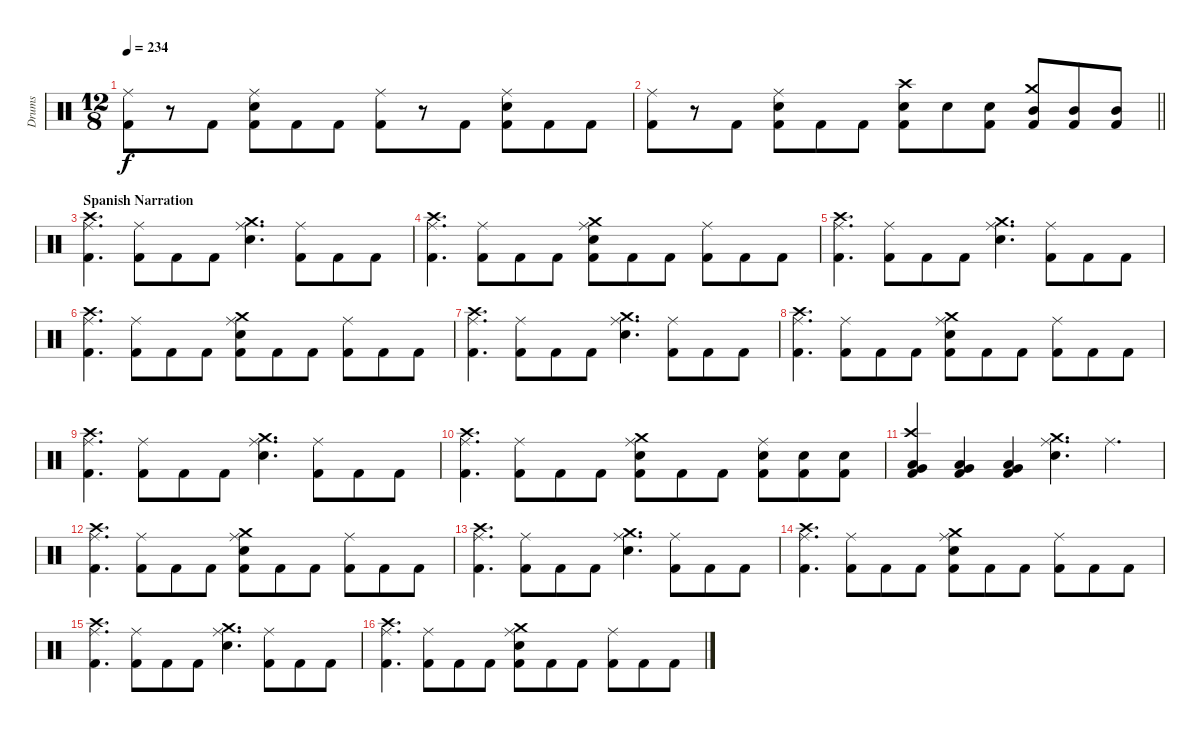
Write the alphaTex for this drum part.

\track ("Drums" "Drums") {instrument percussion}
\staff {score}
\articulation defaults
\ts (12 8)
\tempo 234
\clef neutral
\ks c
("Ride (middle)" "Kick (hit) 2").8{dy f} r.8 "Kick (hit) 2".8 ("Ride (middle)" "Snare (hit) 2" "Kick (hit) 2").8 "Kick (hit) 2".8 "Kick (hit) 2".8 ("Ride (middle)" "Kick (hit) 2").8 r.8 "Kick (hit) 2".8 ("Ride (middle)" "Snare (hit) 2" "Kick (hit) 2").8 "Kick (hit) 2".8 "Kick (hit) 2".8 |
\barLineRight lightlight
("Ride (middle)" "Kick (hit) 2").8 r.8 "Kick (hit) 2".8 ("Ride (middle)" "Snare (hit) 2" "Kick (hit) 2").8 "Kick (hit) 2".8 "Kick (hit) 2".8 ("Crash high (hit)" "Snare (hit) 2" "Kick (hit) 2").8 "Snare (hit) 2".8 ("Snare (hit) 2" "Kick (hit) 2").8 ("Crash medium (hit)" "Mid Tom (hit)" "Kick (hit) 2").8 ("Mid Tom (hit)" "Kick (hit) 2").8 ("Mid Tom (hit)" "Kick (hit) 2").8 |
\section ("" "Spanish Narration")
("Crash high (hit)" "Ride (middle)" "Kick (hit) 2").4{d} ("Ride (middle)" "Kick (hit) 2").8 "Kick (hit) 2".8 "Kick (hit) 2".8 ("Crash medium (hit)" "Ride (middle)" "Snare (hit) 2").4{d} ("Ride (middle)" "Kick (hit) 2").8 "Kick (hit) 2".8 "Kick (hit) 2".8 |
("Crash high (hit)" "Ride (middle)" "Kick (hit) 2").4{d} ("Ride (middle)" "Kick (hit) 2").8 "Kick (hit) 2".8 "Kick (hit) 2".8 ("Ride (middle)" "Crash medium (hit)" "Snare (hit) 2" "Kick (hit) 2").8 "Kick (hit) 2".8 "Kick (hit) 2".8 ("Ride (middle)" "Kick (hit) 2").8 "Kick (hit) 2".8 "Kick (hit) 2".8 |
("Crash high (hit)" "Ride (middle)" "Kick (hit) 2").4{d} ("Ride (middle)" "Kick (hit) 2").8 "Kick (hit) 2".8 "Kick (hit) 2".8 ("Crash medium (hit)" "Ride (middle)" "Snare (hit) 2").4{d} ("Ride (middle)" "Kick (hit) 2").8 "Kick (hit) 2".8 "Kick (hit) 2".8 |
("Crash high (hit)" "Ride (middle)" "Kick (hit) 2").4{d} ("Ride (middle)" "Kick (hit) 2").8 "Kick (hit) 2".8 "Kick (hit) 2".8 ("Ride (middle)" "Crash medium (hit)" "Snare (hit) 2" "Kick (hit) 2").8 "Kick (hit) 2".8 "Kick (hit) 2".8 ("Ride (middle)" "Kick (hit) 2").8 "Kick (hit) 2".8 "Kick (hit) 2".8 |
("Crash high (hit)" "Ride (middle)" "Kick (hit) 2").4{d} ("Ride (middle)" "Kick (hit) 2").8 "Kick (hit) 2".8 "Kick (hit) 2".8 ("Crash medium (hit)" "Ride (middle)" "Snare (hit) 2").4{d} ("Ride (middle)" "Kick (hit) 2").8 "Kick (hit) 2".8 "Kick (hit) 2".8 |
("Crash high (hit)" "Ride (middle)" "Kick (hit) 2").4{d} ("Ride (middle)" "Kick (hit) 2").8 "Kick (hit) 2".8 "Kick (hit) 2".8 ("Ride (middle)" "Crash medium (hit)" "Snare (hit) 2" "Kick (hit) 2").8 "Kick (hit) 2".8 "Kick (hit) 2".8 ("Ride (middle)" "Kick (hit) 2").8 "Kick (hit) 2".8 "Kick (hit) 2".8 |
("Crash high (hit)" "Ride (middle)" "Kick (hit) 2").4{d} ("Ride (middle)" "Kick (hit) 2").8 "Kick (hit) 2".8 "Kick (hit) 2".8 ("Crash medium (hit)" "Ride (middle)" "Snare (hit) 2").4{d} ("Ride (middle)" "Kick (hit) 2").8 "Kick (hit) 2".8 "Kick (hit) 2".8 |
("Crash high (hit)" "Ride (middle)" "Kick (hit) 2").4{d} ("Ride (middle)" "Kick (hit) 2").8 "Kick (hit) 2".8 "Kick (hit) 2".8 ("Ride (middle)" "Crash medium (hit)" "Snare (hit) 2" "Kick (hit) 2").8 "Kick (hit) 2".8 "Kick (hit) 2".8 ("Ride (middle)" "Snare (hit) 2" "Kick (hit) 2").8 ("Snare (hit) 2" "Kick (hit) 2").8 ("Snare (hit) 2" "Kick (hit) 2").8 |
("Crash high (hit)" "Very Low Tom (hit)" "Low Floor Tom (hit)" "Kick (hit) 2").4 ("Very Low Tom (hit)" "Low Floor Tom (hit)" "Kick (hit) 2").4 ("Very Low Tom (hit)" "Low Floor Tom (hit)" "Kick (hit) 2").4 ("Crash medium (hit)" "Ride (middle)" "Snare (hit) 2").4{d} "Ride (middle)".4{d} |
("Crash high (hit)" "Ride (middle)" "Kick (hit) 2").4{d} ("Ride (middle)" "Kick (hit) 2").8 "Kick (hit) 2".8 "Kick (hit) 2".8 ("Ride (middle)" "Crash medium (hit)" "Snare (hit) 2" "Kick (hit) 2").8 "Kick (hit) 2".8 "Kick (hit) 2".8 ("Ride (middle)" "Kick (hit) 2").8 "Kick (hit) 2".8 "Kick (hit) 2".8 |
("Crash high (hit)" "Ride (middle)" "Kick (hit) 2").4{d} ("Ride (middle)" "Kick (hit) 2").8 "Kick (hit) 2".8 "Kick (hit) 2".8 ("Crash medium (hit)" "Ride (middle)" "Snare (hit) 2").4{d} ("Ride (middle)" "Kick (hit) 2").8 "Kick (hit) 2".8 "Kick (hit) 2".8 |
("Crash high (hit)" "Ride (middle)" "Kick (hit) 2").4{d} ("Ride (middle)" "Kick (hit) 2").8 "Kick (hit) 2".8 "Kick (hit) 2".8 ("Ride (middle)" "Crash medium (hit)" "Snare (hit) 2" "Kick (hit) 2").8 "Kick (hit) 2".8 "Kick (hit) 2".8 ("Ride (middle)" "Kick (hit) 2").8 "Kick (hit) 2".8 "Kick (hit) 2".8 |
("Crash high (hit)" "Ride (middle)" "Kick (hit) 2").4{d} ("Ride (middle)" "Kick (hit) 2").8 "Kick (hit) 2".8 "Kick (hit) 2".8 ("Crash medium (hit)" "Ride (middle)" "Snare (hit) 2").4{d} ("Ride (middle)" "Kick (hit) 2").8 "Kick (hit) 2".8 "Kick (hit) 2".8 |
("Crash high (hit)" "Ride (middle)" "Kick (hit) 2").4{d} ("Ride (middle)" "Kick (hit) 2").8 "Kick (hit) 2".8 "Kick (hit) 2".8 ("Ride (middle)" "Crash medium (hit)" "Snare (hit) 2" "Kick (hit) 2").8 "Kick (hit) 2".8 "Kick (hit) 2".8 ("Ride (middle)" "Kick (hit) 2").8 "Kick (hit) 2".8 "Kick (hit) 2".8
